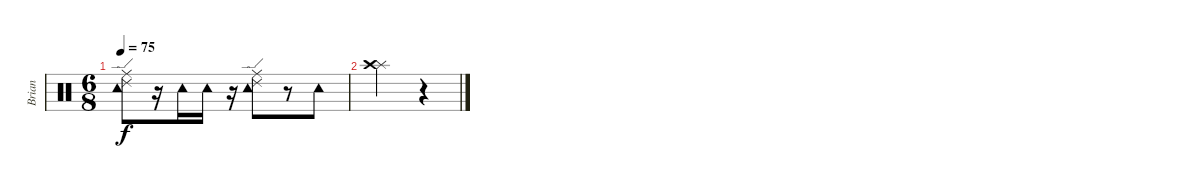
\track ("Brian" "Brian") {instrument percussion}
\staff {score}
\articulation defaults
\ts (6 8)
\tempo 75
\clef neutral
\ks c
("Tambourine (hit)" "Ride (middle)" "Ride (edge) 2").8{dy f} r.16 "Tambourine (hit)".16 "Tambourine (hit)".16 r.16 ("Tambourine (hit)" "Ride (middle)" "Ride (edge) 2").8 r.8 "Tambourine (hit)".8 |
("Splash (hit)" "Crash high (hit)").2 r.4
